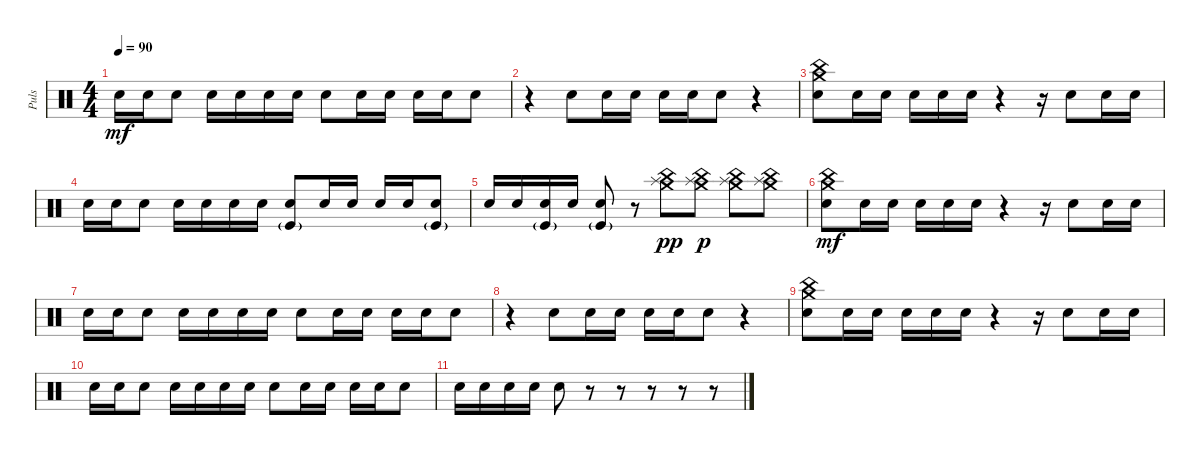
\track ("Puls" "Puls") {instrument percussion}
\staff {score}
\articulation defaults
\ts (4 4)
\tempo 90
\clef neutral
\ks c "Snare (hit) 2".16{dy mf} "Snare (hit) 2".16 "Snare (hit) 2".8 "Snare (hit) 2".16 "Snare (hit) 2".16 "Snare (hit) 2".16 "Snare (hit) 2".16 "Snare (hit) 2".8 "Snare (hit) 2".16 "Snare (hit) 2".16 "Snare (hit) 2".16 "Snare (hit) 2".16 "Snare (hit) 2".8
|
r.4 "Snare (hit) 2".8 "Snare (hit) 2".16 "Snare (hit) 2".16 "Snare (hit) 2".16 "Snare (hit) 2".16 "Snare (hit) 2".8 r.4 |
("Snare (hit) 2" "China (hit)" "Crash medium (hit)").8 "Snare (hit) 2".16 "Snare (hit) 2".16 "Snare (hit) 2".16 "Snare (hit) 2".16 "Snare (hit) 2".16 r.4 r.16 "Snare (hit) 2".8 "Snare (hit) 2".16 "Snare (hit) 2".16 |
"Snare (hit) 2".16 "Snare (hit) 2".16 "Snare (hit) 2".8 "Snare (hit) 2".16 "Snare (hit) 2".16 "Snare (hit) 2".16 "Snare (hit) 2".16 ("Snare (hit) 2" "Kick (hit)"{g}).8 "Snare (hit) 2".16 "Snare (hit) 2".16 "Snare (hit) 2".16 "Snare (hit) 2".16 ("Snare (hit) 2" "Kick (hit)"{g}).8 |
"Snare (hit) 2".16 "Snare (hit) 2".16 ("Snare (hit) 2" "Kick (hit)"{g}).16 "Snare (hit) 2".16 ("Snare (hit) 2" "Kick (hit)"{g}).8 r.8 ("Splash (hit)" "Crash medium (hit)" "China (hit)").8{dy pp} ("Splash (hit)" "Crash medium (hit)" "China (hit)").8{dy p} ("Splash (hit)" "Crash medium (hit)" "China (hit)").8 ("Splash (hit)" "Crash medium (hit)" "China (hit)").8 |
("Snare (hit) 2" "China (hit)" "Crash medium (hit)").8{dy mf} "Snare (hit) 2".16 "Snare (hit) 2".16 "Snare (hit) 2".16 "Snare (hit) 2".16 "Snare (hit) 2".16 r.4 r.16 "Snare (hit) 2".8 "Snare (hit) 2".16 "Snare (hit) 2".16 |
"Snare (hit) 2".16 "Snare (hit) 2".16 "Snare (hit) 2".8 "Snare (hit) 2".16 "Snare (hit) 2".16 "Snare (hit) 2".16 "Snare (hit) 2".16 "Snare (hit) 2".8 "Snare (hit) 2".16 "Snare (hit) 2".16 "Snare (hit) 2".16 "Snare (hit) 2".16 "Snare (hit) 2".8 |
r.4 "Snare (hit) 2".8 "Snare (hit) 2".16 "Snare (hit) 2".16 "Snare (hit) 2".16 "Snare (hit) 2".16 "Snare (hit) 2".8 r.4 |
("Snare (hit) 2" "China (hit)" "Crash medium (hit)").8 "Snare (hit) 2".16 "Snare (hit) 2".16 "Snare (hit) 2".16 "Snare (hit) 2".16 "Snare (hit) 2".16 r.4 r.16 "Snare (hit) 2".8 "Snare (hit) 2".16 "Snare (hit) 2".16 |
"Snare (hit) 2".16 "Snare (hit) 2".16 "Snare (hit) 2".8 "Snare (hit) 2".16 "Snare (hit) 2".16 "Snare (hit) 2".16 "Snare (hit) 2".16 "Snare (hit) 2".8 "Snare (hit) 2".16 "Snare (hit) 2".16 "Snare (hit) 2".16 "Snare (hit) 2".16 "Snare (hit) 2".8 |
"Snare (hit) 2".16 "Snare (hit) 2".16 "Snare (hit) 2".16 "Snare (hit) 2".16 "Snare (hit) 2".8 r.8 r.8 r.8 r.8 r.8
